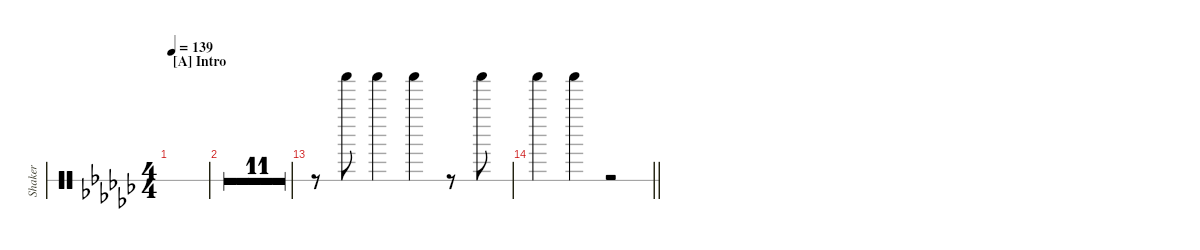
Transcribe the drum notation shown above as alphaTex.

\defaultSystemsLayout 4
\hideDynamics
\bracketExtendMode groupsimilarinstruments
\otherSystemsTrackNameOrientation horizontal
\track ("Shaker" "Shaker") {multiBarRest instrument percussion}
\staff {score 1}
\articulation defaults
\ts (4 4)
\beaming (8 2 2 2 2)
\section ("A" "Intro")
\tempo 139
\clef neutral
\ks gb
|
|
|
|
|
\barLineRight lightlight
|
|
|
|
|
|
|
r.8 "Shaker (hit)"{acc forcenatural}.8 "Shaker (hit)"{acc forcenatural}.4 "Shaker (hit)"{acc forcenatural}.4 r.8 "Shaker (hit)"{acc forcenatural}.8 |
\barLineRight lightlight "Shaker (hit)"{acc forcenatural}.4 "Shaker (hit)"{acc forcenatural}.4
r.2
